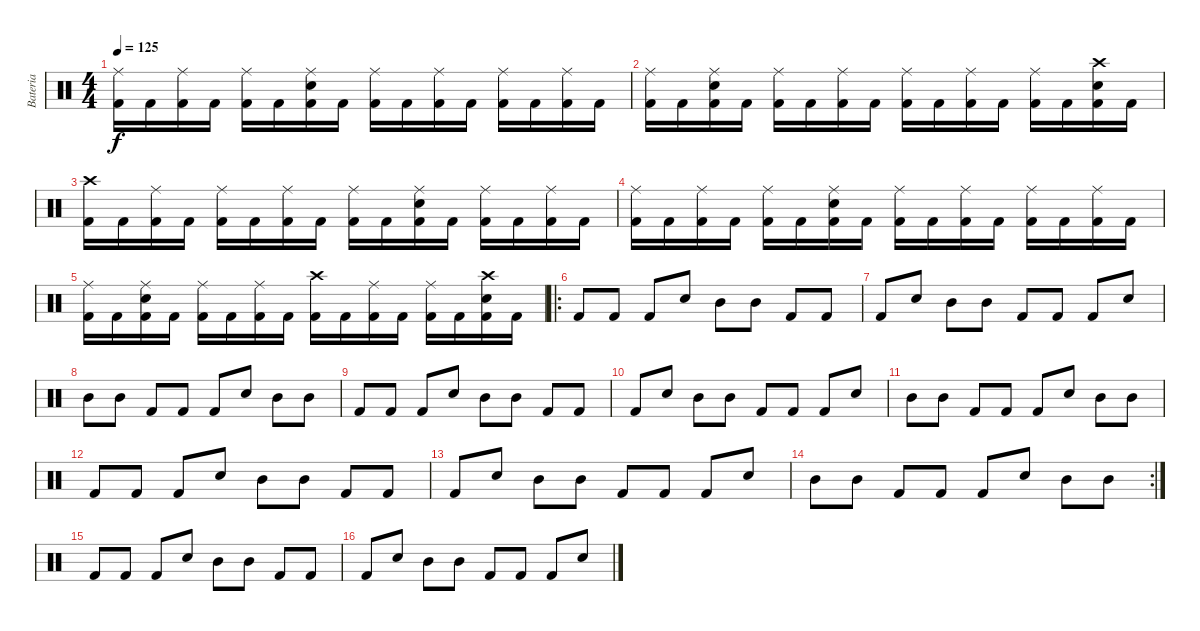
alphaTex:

\track ("Bateria" "Bateria") {instrument percussion}
\staff {score}
\articulation defaults
\ts (4 4)
\tempo 125
\clef neutral
\ks c
("Kick (hit) 2" "Ride (middle)").16{dy f} "Kick (hit) 2".16 ("Kick (hit) 2" "Ride (middle)").16 "Kick (hit) 2".16 ("Kick (hit) 2" "Ride (middle)").16 "Kick (hit) 2".16 ("Snare (hit) 2" "Kick (hit) 2" "Ride (middle)").16 "Kick (hit) 2".16 ("Kick (hit) 2" "Ride (middle)").16 "Kick (hit) 2".16 ("Kick (hit) 2" "Ride (middle)").16 "Kick (hit) 2".16 ("Kick (hit) 2" "Ride (middle)").16 "Kick (hit) 2".16 ("Kick (hit) 2" "Ride (middle)").16 "Kick (hit) 2".16 |
("Kick (hit) 2" "Ride (middle)").16 "Kick (hit) 2".16 ("Snare (hit) 2" "Kick (hit) 2" "Ride (middle)").16 "Kick (hit) 2".16 ("Kick (hit) 2" "Ride (middle)").16 "Kick (hit) 2".16 ("Kick (hit) 2" "Ride (middle)").16 "Kick (hit) 2".16 ("Kick (hit) 2" "Ride (middle)").16 "Kick (hit) 2".16 ("Kick (hit) 2" "Ride (middle)").16 "Kick (hit) 2".16 ("Kick (hit) 2" "Ride (middle)").16 "Kick (hit) 2".16 ("Snare (hit) 2" "Kick (hit) 2" "Crash high (hit)").16 "Kick (hit) 2".16 |
("Kick (hit) 2" "Crash high (hit)").16 "Kick (hit) 2".16 ("Kick (hit) 2" "Ride (middle)").16 "Kick (hit) 2".16 ("Kick (hit) 2" "Ride (middle)").16 "Kick (hit) 2".16 ("Kick (hit) 2" "Ride (middle)").16 "Kick (hit) 2".16 ("Kick (hit) 2" "Ride (middle)").16 "Kick (hit) 2".16 ("Snare (hit) 2" "Kick (hit) 2" "Ride (middle)").16 "Kick (hit) 2".16 ("Kick (hit) 2" "Ride (middle)").16 "Kick (hit) 2".16 ("Kick (hit) 2" "Ride (middle)").16 "Kick (hit) 2".16 |
("Kick (hit) 2" "Ride (middle)").16 "Kick (hit) 2".16 ("Kick (hit) 2" "Ride (middle)").16 "Kick (hit) 2".16 ("Kick (hit) 2" "Ride (middle)").16 "Kick (hit) 2".16 ("Snare (hit) 2" "Kick (hit) 2" "Ride (middle)").16 "Kick (hit) 2".16 ("Kick (hit) 2" "Ride (middle)").16 "Kick (hit) 2".16 ("Kick (hit) 2" "Ride (middle)").16 "Kick (hit) 2".16 ("Kick (hit) 2" "Ride (middle)").16 "Kick (hit) 2".16 ("Kick (hit) 2" "Ride (middle)").16 "Kick (hit) 2".16 |
("Kick (hit) 2" "Ride (middle)").16 "Kick (hit) 2".16 ("Snare (hit) 2" "Kick (hit) 2" "Ride (middle)").16 "Kick (hit) 2".16 ("Kick (hit) 2" "Ride (middle)").16 "Kick (hit) 2".16 ("Kick (hit) 2" "Ride (middle)").16 "Kick (hit) 2".16 ("Kick (hit) 2" "Crash high (hit)").16 "Kick (hit) 2".16 ("Kick (hit) 2" "Ride (middle)").16 "Kick (hit) 2".16 ("Kick (hit) 2" "Ride (middle)").16 "Kick (hit) 2".16 ("Snare (hit) 2" "Kick (hit) 2" "Crash high (hit)").16 "Kick (hit) 2".16 |
\ro "Kick (hit) 2".8 "Kick (hit) 2".8 "Kick (hit) 2".8 "Snare (hit) 2".8 "Mid Tom (hit)".8 "Mid Tom (hit)".8 "Kick (hit) 2".8 "Kick (hit) 2".8
|
"Kick (hit) 2".8 "Snare (hit) 2".8 "Mid Tom (hit)".8 "Mid Tom (hit)".8 "Kick (hit) 2".8 "Kick (hit) 2".8 "Kick (hit) 2".8 "Snare (hit) 2".8 |
"Mid Tom (hit)".8 "Mid Tom (hit)".8 "Kick (hit) 2".8 "Kick (hit) 2".8 "Kick (hit) 2".8 "Snare (hit) 2".8 "Mid Tom (hit)".8 "Mid Tom (hit)".8 |
"Kick (hit) 2".8 "Kick (hit) 2".8 "Kick (hit) 2".8 "Snare (hit) 2".8 "Mid Tom (hit)".8 "Mid Tom (hit)".8 "Kick (hit) 2".8 "Kick (hit) 2".8 |
"Kick (hit) 2".8 "Snare (hit) 2".8 "Mid Tom (hit)".8 "Mid Tom (hit)".8 "Kick (hit) 2".8 "Kick (hit) 2".8 "Kick (hit) 2".8 "Snare (hit) 2".8 |
"Mid Tom (hit)".8 "Mid Tom (hit)".8 "Kick (hit) 2".8 "Kick (hit) 2".8 "Kick (hit) 2".8 "Snare (hit) 2".8 "Mid Tom (hit)".8 "Mid Tom (hit)".8 |
"Kick (hit) 2".8 "Kick (hit) 2".8 "Kick (hit) 2".8 "Snare (hit) 2".8 "Mid Tom (hit)".8 "Mid Tom (hit)".8 "Kick (hit) 2".8 "Kick (hit) 2".8 |
"Kick (hit) 2".8 "Snare (hit) 2".8 "Mid Tom (hit)".8 "Mid Tom (hit)".8 "Kick (hit) 2".8 "Kick (hit) 2".8 "Kick (hit) 2".8 "Snare (hit) 2".8 |
\rc 2 "Mid Tom (hit)".8 "Mid Tom (hit)".8 "Kick (hit) 2".8 "Kick (hit) 2".8 "Kick (hit) 2".8 "Snare (hit) 2".8 "Mid Tom (hit)".8 "Mid Tom (hit)".8
|
"Kick (hit) 2".8 "Kick (hit) 2".8 "Kick (hit) 2".8 "Snare (hit) 2".8 "Mid Tom (hit)".8 "Mid Tom (hit)".8 "Kick (hit) 2".8 "Kick (hit) 2".8 |
"Kick (hit) 2".8 "Snare (hit) 2".8 "Mid Tom (hit)".8 "Mid Tom (hit)".8 "Kick (hit) 2".8 "Kick (hit) 2".8 "Kick (hit) 2".8 "Snare (hit) 2".8
